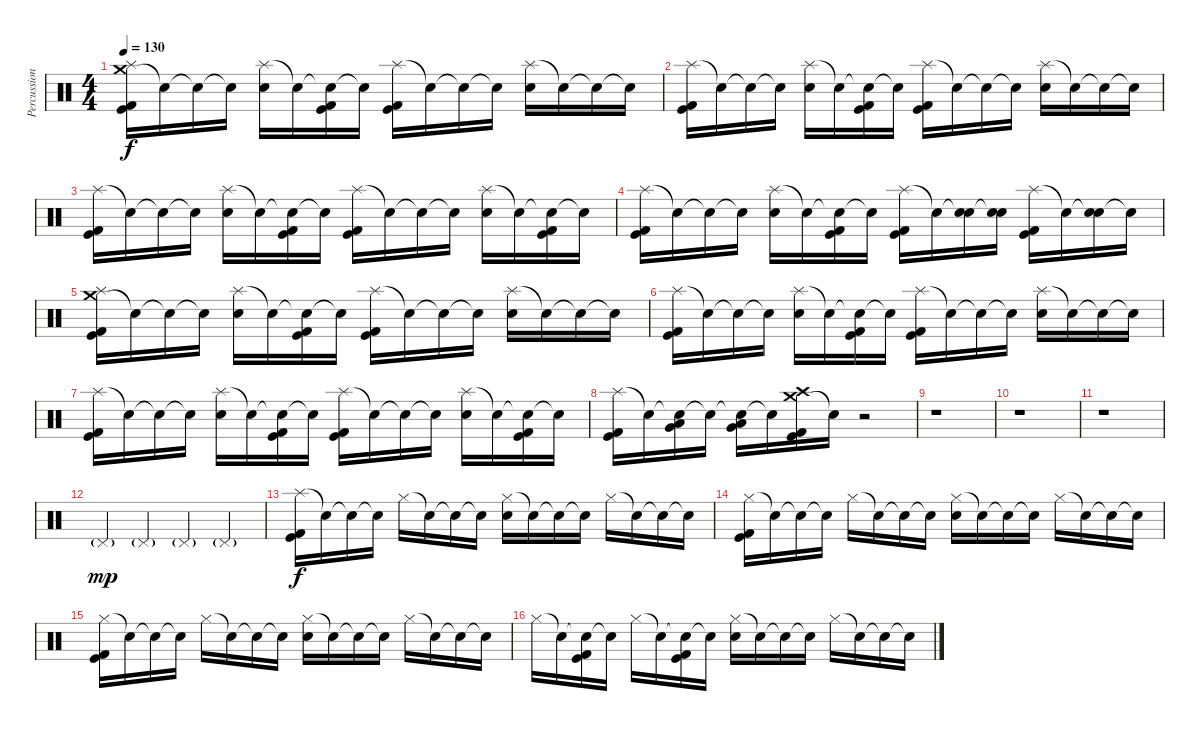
\track ("Percussion" "Percussion") {instrument percussion}
\staff {score}
\articulation defaults
\ts (4 4)
\tempo 130
\clef neutral
\ks c
("Crash medium (hit)" "Splash (hit)" "Kick (hit)" "Kick (hit) 2").16{dy f} "Snare (hit)"{t}.16 "Snare (hit)"{t}.16 "Snare (hit)"{t}.16 ("Splash (hit)" "Electric Snare (hit)").16 "Snare (hit)"{t}.16 ("Snare (hit)"{t} "Kick (hit)" "Kick (hit) 2").16 "Snare (hit)"{t}.16 ("Splash (hit)" "Kick (hit)" "Kick (hit) 2").16 "Snare (hit)"{t}.16 "Snare (hit)"{t}.16 "Snare (hit)"{t}.16 ("Splash (hit)" "Electric Snare (hit)").16 "Snare (hit)"{t}.16 "Snare (hit)"{t}.16 "Snare (hit)"{t}.16 |
("Splash (hit)" "Kick (hit)" "Kick (hit) 2").16 "Snare (hit)"{t}.16 "Snare (hit)"{t}.16 "Snare (hit)"{t}.16 ("Splash (hit)" "Electric Snare (hit)").16 "Snare (hit)"{t}.16 ("Snare (hit)"{t} "Kick (hit)" "Kick (hit) 2").16 "Snare (hit)"{t}.16 ("Splash (hit)" "Kick (hit)" "Kick (hit) 2").16 "Snare (hit)"{t}.16 "Snare (hit)"{t}.16 "Snare (hit)"{t}.16 ("Splash (hit)" "Electric Snare (hit)").16 "Snare (hit)"{t}.16 "Snare (hit)"{t}.16 "Snare (hit)"{t}.16 |
("Splash (hit)" "Kick (hit)" "Kick (hit) 2").16 "Snare (hit)"{t}.16 "Snare (hit)"{t}.16 "Snare (hit)"{t}.16 ("Splash (hit)" "Electric Snare (hit)").16 "Snare (hit)"{t}.16 ("Snare (hit)"{t} "Kick (hit)" "Kick (hit) 2").16 "Snare (hit)"{t}.16 ("Splash (hit)" "Kick (hit)" "Kick (hit) 2").16 "Snare (hit)"{t}.16 "Snare (hit)"{t}.16 "Snare (hit)"{t}.16 ("Splash (hit)" "Electric Snare (hit)").16 "Snare (hit)"{t}.16 ("Snare (hit)"{t} "Kick (hit)" "Kick (hit) 2").16 "Snare (hit)"{t}.16 |
("Splash (hit)" "Kick (hit)" "Kick (hit) 2").16 "Snare (hit)"{t}.16 "Snare (hit)"{t}.16 "Snare (hit)"{t}.16 ("Splash (hit)" "Electric Snare (hit)").16 "Snare (hit)"{t}.16 ("Snare (hit)"{t} "Kick (hit)" "Kick (hit) 2").16 "Snare (hit)"{t}.16 ("Splash (hit)" "Kick (hit)" "Kick (hit) 2").16 "Snare (hit)"{t}.16 ("Snare (hit)"{t} "Electric Snare (hit)").16 ("Snare (hit)"{t} "Electric Snare (hit)").16 ("Splash (hit)" "Kick (hit)" "Kick (hit) 2").16 "Snare (hit)"{t}.16 ("Snare (hit)"{t} "Electric Snare (hit)").16 "Snare (hit)"{t}.16 |
("Crash medium (hit)" "Splash (hit)" "Kick (hit)" "Kick (hit) 2").16 "Snare (hit)"{t}.16 "Snare (hit)"{t}.16 "Snare (hit)"{t}.16 ("Splash (hit)" "Electric Snare (hit)").16 "Snare (hit)"{t}.16 ("Snare (hit)"{t} "Kick (hit)" "Kick (hit) 2").16 "Snare (hit)"{t}.16 ("Splash (hit)" "Kick (hit)" "Kick (hit) 2").16 "Snare (hit)"{t}.16 "Snare (hit)"{t}.16 "Snare (hit)"{t}.16 ("Splash (hit)" "Electric Snare (hit)").16 "Snare (hit)"{t}.16 "Snare (hit)"{t}.16 "Snare (hit)"{t}.16 |
("Splash (hit)" "Kick (hit)" "Kick (hit) 2").16 "Snare (hit)"{t}.16 "Snare (hit)"{t}.16 "Snare (hit)"{t}.16 ("Splash (hit)" "Electric Snare (hit)").16 "Snare (hit)"{t}.16 ("Snare (hit)"{t} "Kick (hit)" "Kick (hit) 2").16 "Snare (hit)"{t}.16 ("Splash (hit)" "Kick (hit)" "Kick (hit) 2").16 "Snare (hit)"{t}.16 "Snare (hit)"{t}.16 "Snare (hit)"{t}.16 ("Splash (hit)" "Electric Snare (hit)").16 "Snare (hit)"{t}.16 "Snare (hit)"{t}.16 "Snare (hit)"{t}.16 |
("Splash (hit)" "Kick (hit)" "Kick (hit) 2").16 "Snare (hit)"{t}.16 "Snare (hit)"{t}.16 "Snare (hit)"{t}.16 ("Splash (hit)" "Electric Snare (hit)").16 "Snare (hit)"{t}.16 ("Snare (hit)"{t} "Kick (hit)" "Kick (hit) 2").16 "Snare (hit)"{t}.16 ("Splash (hit)" "Kick (hit)" "Kick (hit) 2").16 "Snare (hit)"{t}.16 "Snare (hit)"{t}.16 "Snare (hit)"{t}.16 ("Splash (hit)" "Electric Snare (hit)").16 "Snare (hit)"{t}.16 ("Snare (hit)"{t} "Kick (hit)" "Kick (hit) 2").16 "Snare (hit)"{t}.16 |
("Splash (hit)" "Kick (hit)" "Kick (hit) 2").16 "Snare (hit)"{t}.16 ("Snare (hit)"{t} "Low Tom (hit)" "Very Low Tom (hit)").16 "Snare (hit)"{t}.16 ("Snare (hit)"{t} "Low Tom (hit)" "Very Low Tom (hit)").16 "Snare (hit)"{t}.16 ("Crash medium (hit)" "Crash high (hit)" "Kick (hit)" "Kick (hit) 2").16 "Snare (hit)"{t}.16 r.2 |
r.1 |
r.1 |
r.1 |
"Pedal Hi-Hat (hit)"{g}.4{dy mp} "Pedal Hi-Hat (hit)"{g}.4 "Pedal Hi-Hat (hit)"{g}.4 "Pedal Hi-Hat (hit)"{g}.4 |
("Splash (hit)" "Kick (hit)" "Kick (hit) 2").16{dy f} "Snare (hit)"{t}.16 "Snare (hit)"{t}.16 "Snare (hit)"{t}.16 "Hi-Hat (closed)".16 "Snare (hit)"{t}.16 "Snare (hit)"{t}.16 "Snare (hit)"{t}.16 ("Hi-Hat (closed)" "Electric Snare (hit)").16 "Snare (hit)"{t}.16 "Snare (hit)"{t}.16 "Snare (hit)"{t}.16 "Hi-Hat (closed)".16 "Snare (hit)"{t}.16 "Snare (hit)"{t}.16 "Snare (hit)"{t}.16 |
("Hi-Hat (closed)" "Kick (hit)" "Kick (hit) 2").16 "Snare (hit)"{t}.16 "Snare (hit)"{t}.16 "Snare (hit)"{t}.16 "Hi-Hat (closed)".16 "Snare (hit)"{t}.16 "Snare (hit)"{t}.16 "Snare (hit)"{t}.16 ("Hi-Hat (closed)" "Electric Snare (hit)").16 "Snare (hit)"{t}.16 "Snare (hit)"{t}.16 "Snare (hit)"{t}.16 "Hi-Hat (closed)".16 "Snare (hit)"{t}.16 "Snare (hit)"{t}.16 "Snare (hit)"{t}.16 |
("Hi-Hat (closed)" "Kick (hit)" "Kick (hit) 2").16 "Snare (hit)"{t}.16 "Snare (hit)"{t}.16 "Snare (hit)"{t}.16 "Hi-Hat (closed)".16 "Snare (hit)"{t}.16 "Snare (hit)"{t}.16 "Snare (hit)"{t}.16 ("Hi-Hat (closed)" "Electric Snare (hit)").16 "Snare (hit)"{t}.16 "Snare (hit)"{t}.16 "Snare (hit)"{t}.16 "Hi-Hat (closed)".16 "Snare (hit)"{t}.16 "Snare (hit)"{t}.16 "Snare (hit)"{t}.16 |
"Hi-Hat (closed)".16 "Snare (hit)"{t}.16 ("Snare (hit)"{t} "Kick (hit)" "Kick (hit) 2").16 "Snare (hit)"{t}.16 "Hi-Hat (closed)".16 "Snare (hit)"{t}.16 ("Snare (hit)"{t} "Kick (hit)" "Kick (hit) 2").16 "Snare (hit)"{t}.16 ("Hi-Hat (closed)" "Electric Snare (hit)").16 "Snare (hit)"{t}.16 "Snare (hit)"{t}.16 "Snare (hit)"{t}.16 "Hi-Hat (closed)".16 "Snare (hit)"{t}.16 "Snare (hit)"{t}.16 "Snare (hit)"{t}.16
